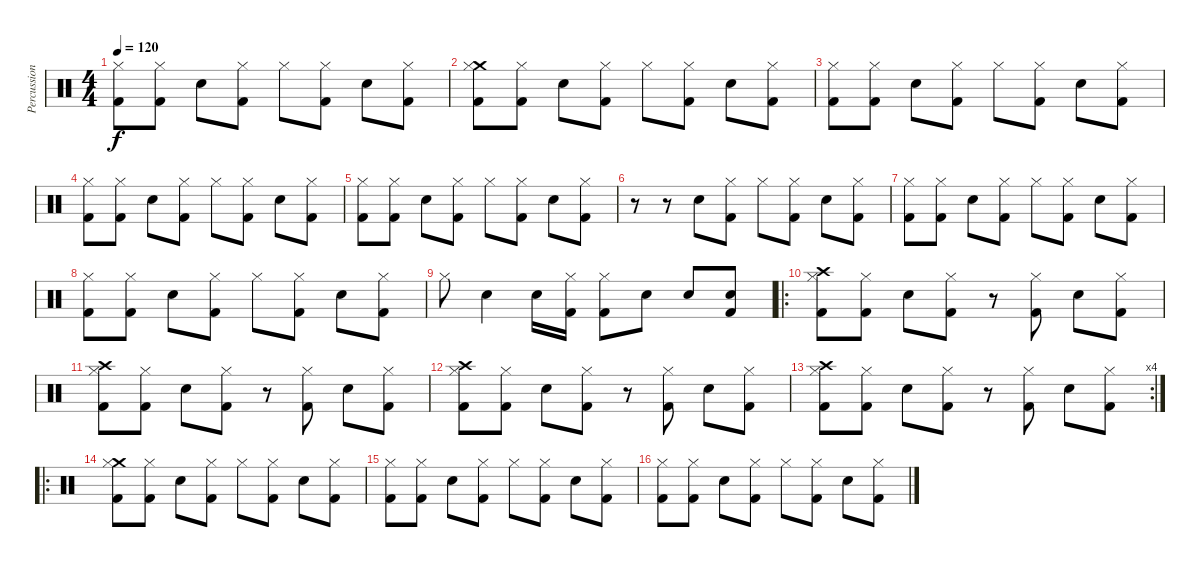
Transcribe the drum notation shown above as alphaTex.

\track ("Percussion" "Percussion") {instrument percussion}
\staff {score}
\articulation defaults
\ts (4 4)
\tempo 120
\clef neutral
\ks c
("Hi-Hat (closed)" "Kick (hit) 2").8{dy f} ("Hi-Hat (closed)" "Kick (hit) 2").8 "Electric Snare (hit)".8 ("Hi-Hat (closed)" "Kick (hit) 2").8 "Hi-Hat (closed)".8 ("Hi-Hat (closed)" "Kick (hit) 2").8 "Electric Snare (hit)".8 ("Hi-Hat (closed)" "Kick (hit) 2").8 |
("Crash medium (hit)" "Hi-Hat (closed)" "Kick (hit) 2").8 ("Hi-Hat (closed)" "Kick (hit) 2").8 "Electric Snare (hit)".8 ("Hi-Hat (closed)" "Kick (hit) 2").8 "Hi-Hat (closed)".8 ("Hi-Hat (closed)" "Kick (hit) 2").8 "Electric Snare (hit)".8 ("Hi-Hat (closed)" "Kick (hit) 2").8 |
("Hi-Hat (closed)" "Kick (hit) 2").8 ("Hi-Hat (closed)" "Kick (hit) 2").8 "Electric Snare (hit)".8 ("Hi-Hat (closed)" "Kick (hit) 2").8 "Hi-Hat (closed)".8 ("Hi-Hat (closed)" "Kick (hit) 2").8 "Electric Snare (hit)".8 ("Hi-Hat (closed)" "Kick (hit) 2").8 |
("Hi-Hat (closed)" "Kick (hit) 2").8 ("Hi-Hat (closed)" "Kick (hit) 2").8 "Electric Snare (hit)".8 ("Hi-Hat (closed)" "Kick (hit) 2").8 "Hi-Hat (closed)".8 ("Hi-Hat (closed)" "Kick (hit) 2").8 "Electric Snare (hit)".8 ("Hi-Hat (closed)" "Kick (hit) 2").8 |
("Hi-Hat (closed)" "Kick (hit) 2").8 ("Hi-Hat (closed)" "Kick (hit) 2").8 "Electric Snare (hit)".8 ("Hi-Hat (closed)" "Kick (hit) 2").8 "Hi-Hat (closed)".8 ("Hi-Hat (closed)" "Kick (hit) 2").8 "Electric Snare (hit)".8 ("Hi-Hat (closed)" "Kick (hit) 2").8 |
r.8 r.8 "Electric Snare (hit)".8 ("Hi-Hat (closed)" "Kick (hit) 2").8 "Hi-Hat (closed)".8 ("Hi-Hat (closed)" "Kick (hit) 2").8 "Electric Snare (hit)".8 ("Hi-Hat (closed)" "Kick (hit) 2").8 |
("Hi-Hat (closed)" "Kick (hit) 2").8 ("Hi-Hat (closed)" "Kick (hit) 2").8 "Electric Snare (hit)".8 ("Hi-Hat (closed)" "Kick (hit) 2").8 "Hi-Hat (closed)".8 ("Hi-Hat (closed)" "Kick (hit) 2").8 "Electric Snare (hit)".8 ("Hi-Hat (closed)" "Kick (hit) 2").8 |
("Hi-Hat (closed)" "Kick (hit) 2").8 ("Hi-Hat (closed)" "Kick (hit) 2").8 "Electric Snare (hit)".8 ("Hi-Hat (closed)" "Kick (hit) 2").8 "Hi-Hat (closed)".8 ("Hi-Hat (closed)" "Kick (hit) 2").8 "Electric Snare (hit)".8 ("Hi-Hat (closed)" "Kick (hit) 2").8 |
"Hi-Hat (closed)".8 "Electric Snare (hit)".4 "Electric Snare (hit)".16 ("Hi-Hat (closed)" "Kick (hit) 2").16 ("Hi-Hat (closed)" "Kick (hit) 2").8 "Electric Snare (hit)".8 "Electric Snare (hit)".8 ("Electric Snare (hit)" "Kick (hit) 2").8 |
\ro
("Crash high (hit)" "Hi-Hat (closed)" "Kick (hit) 2").8 ("Hi-Hat (closed)" "Kick (hit) 2").8 "Electric Snare (hit)".8 ("Hi-Hat (closed)" "Kick (hit) 2").8 r.8 ("Hi-Hat (closed)" "Kick (hit) 2").8 "Electric Snare (hit)".8 ("Hi-Hat (closed)" "Kick (hit) 2").8 |
("Crash high (hit)" "Hi-Hat (closed)" "Kick (hit) 2").8 ("Hi-Hat (closed)" "Kick (hit) 2").8 "Electric Snare (hit)".8 ("Hi-Hat (closed)" "Kick (hit) 2").8 r.8 ("Hi-Hat (closed)" "Kick (hit) 2").8 "Electric Snare (hit)".8 ("Hi-Hat (closed)" "Kick (hit) 2").8 |
("Crash high (hit)" "Hi-Hat (closed)" "Kick (hit) 2").8 ("Hi-Hat (closed)" "Kick (hit) 2").8 "Electric Snare (hit)".8 ("Hi-Hat (closed)" "Kick (hit) 2").8 r.8 ("Hi-Hat (closed)" "Kick (hit) 2").8 "Electric Snare (hit)".8 ("Hi-Hat (closed)" "Kick (hit) 2").8 |
\rc 4
("Crash high (hit)" "Hi-Hat (closed)" "Kick (hit) 2").8 ("Hi-Hat (closed)" "Kick (hit) 2").8 "Electric Snare (hit)".8 ("Hi-Hat (closed)" "Kick (hit) 2").8 r.8 ("Hi-Hat (closed)" "Kick (hit) 2").8 "Electric Snare (hit)".8 ("Hi-Hat (closed)" "Kick (hit) 2").8 |
\ro
("Crash medium (hit)" "Hi-Hat (closed)" "Kick (hit) 2").8 ("Hi-Hat (closed)" "Kick (hit) 2").8 "Electric Snare (hit)".8 ("Hi-Hat (closed)" "Kick (hit) 2").8 "Hi-Hat (closed)".8 ("Hi-Hat (closed)" "Kick (hit) 2").8 "Electric Snare (hit)".8 ("Hi-Hat (closed)" "Kick (hit) 2").8 |
("Hi-Hat (closed)" "Kick (hit) 2").8 ("Hi-Hat (closed)" "Kick (hit) 2").8 "Electric Snare (hit)".8 ("Hi-Hat (closed)" "Kick (hit) 2").8 "Hi-Hat (closed)".8 ("Hi-Hat (closed)" "Kick (hit) 2").8 "Electric Snare (hit)".8 ("Hi-Hat (closed)" "Kick (hit) 2").8 |
("Hi-Hat (closed)" "Kick (hit) 2").8 ("Hi-Hat (closed)" "Kick (hit) 2").8 "Electric Snare (hit)".8 ("Hi-Hat (closed)" "Kick (hit) 2").8 "Hi-Hat (closed)".8 ("Hi-Hat (closed)" "Kick (hit) 2").8 "Electric Snare (hit)".8 ("Hi-Hat (closed)" "Kick (hit) 2").8
